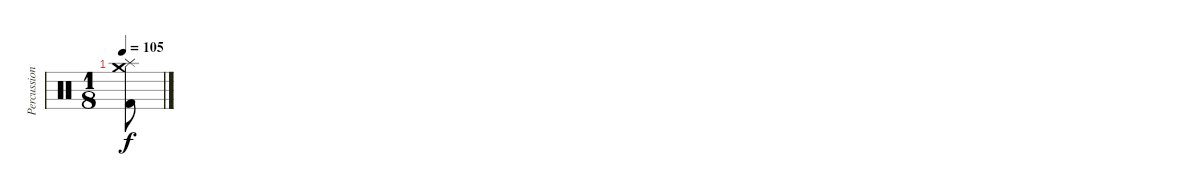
\track ("Percussion" "Percussion") {instrument percussion}
\staff {score}
\articulation defaults
\ts (1 8)
\tempo 105
\clef neutral
\ks c
("Splash (hit)" "Crash medium (hit)" "Kick (hit) 2").8{dy f}
